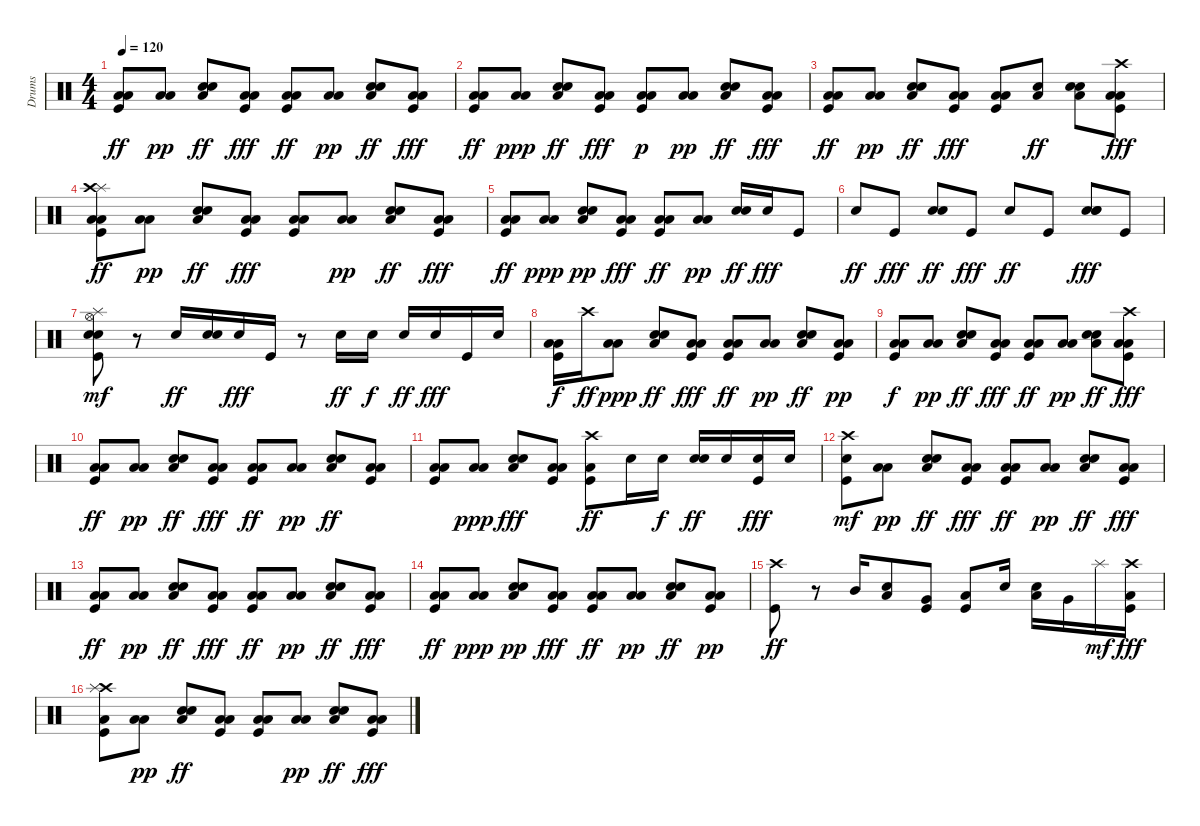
\track ("Drums" "Drums") {instrument percussion}
\staff {score}
\articulation defaults
\ts (4 4)
\tempo 120
\clef neutral
\ks c
("Low Tom (hit)" "Low Floor Tom (hit)" "Kick (hit)").8{dy ff} ("Low Tom (hit)" "Low Floor Tom (hit)").8{dy pp} ("Low Floor Tom (hit)" "Hand Clap (hit)" "Snare (hit) 2").8{dy ff} ("Low Tom (hit)" "Low Floor Tom (hit)" "Kick (hit)").8{dy fff} ("Low Tom (hit)" "Low Floor Tom (hit)" "Kick (hit)").8{dy ff} ("Low Floor Tom (hit)" "Low Tom (hit)").8{dy pp} ("Low Floor Tom (hit)" "Hand Clap (hit)" "Snare (hit) 2").8{dy ff} ("Low Tom (hit)" "Low Floor Tom (hit)" "Kick (hit)").8{dy fff} |
("Low Tom (hit)" "Low Floor Tom (hit)" "Kick (hit)").8{dy ff} ("Low Floor Tom (hit)" "Low Tom (hit)").8{dy ppp} ("Low Floor Tom (hit)" "Hand Clap (hit)" "Snare (hit) 2").8{dy ff} ("Low Tom (hit)" "Low Floor Tom (hit)" "Kick (hit)").8{dy fff} ("Kick (hit)" "Low Tom (hit)" "Low Floor Tom (hit)").8{dy p} ("Low Tom (hit)" "Low Floor Tom (hit)").8{dy pp} ("Low Floor Tom (hit)" "Hand Clap (hit)" "Snare (hit) 2").8{dy ff} ("Low Tom (hit)" "Low Floor Tom (hit)" "Kick (hit)").8{dy fff} |
("Low Tom (hit)" "Low Floor Tom (hit)" "Kick (hit)").8{dy ff} ("Low Tom (hit)" "Low Floor Tom (hit)").8{dy pp} ("Hand Clap (hit)" "Low Floor Tom (hit)" "Snare (hit) 2").8{dy ff} ("Low Tom (hit)" "Low Floor Tom (hit)" "Kick (hit)").8{dy fff} ("Low Tom (hit)" "Low Floor Tom (hit)" "Kick (hit)").8 ("Low Floor Tom (hit)" "Snare (hit) 2").8{dy ff} ("Low Floor Tom (hit)" "Hand Clap (hit)" "Snare (hit) 2").8 ("Crash high (hit)" "Low Tom (hit)" "Low Floor Tom (hit)" "Kick (hit)").8{dy fff} |
("Splash (hit)" "Crash high (hit)" "Low Tom (hit)" "Low Floor Tom (hit)" "Kick (hit)").8{dy ff} ("Low Tom (hit)" "Low Floor Tom (hit)").8{dy pp} ("Hand Clap (hit)" "Low Floor Tom (hit)" "Snare (hit) 2").8{dy ff} ("Low Tom (hit)" "Low Floor Tom (hit)" "Kick (hit)").8{dy fff} ("Low Tom (hit)" "Low Floor Tom (hit)" "Kick (hit)").8 ("Low Floor Tom (hit)" "Low Tom (hit)").8{dy pp} ("Low Floor Tom (hit)" "Hand Clap (hit)" "Snare (hit) 2").8{dy ff} ("Low Tom (hit)" "Low Floor Tom (hit)" "Kick (hit)").8{dy fff} |
("Low Tom (hit)" "Low Floor Tom (hit)" "Kick (hit)").8{dy ff} ("Low Floor Tom (hit)" "Low Tom (hit)").8{dy ppp} ("Hand Clap (hit)" "Snare (hit) 2" "Low Floor Tom (hit)").8{dy pp} ("Low Tom (hit)" "Low Floor Tom (hit)" "Kick (hit)").8{dy fff} ("Low Tom (hit)" "Low Floor Tom (hit)" "Kick (hit)").8{dy ff} ("Low Tom (hit)" "Low Floor Tom (hit)").8{dy pp} ("Hand Clap (hit)" "Snare (hit) 2").16{dy ff} "Snare (hit) 2".16{dy fff} "Kick (hit)".8 |
"Snare (hit) 2".8{dy ff} "Kick (hit)".8{dy fff} ("Hand Clap (hit)" "Snare (hit) 2").8{dy ff} "Kick (hit)".8{dy fff} "Snare (hit) 2".8{dy ff} "Kick (hit)".8 ("Snare (hit) 2" "Hand Clap (hit)" "Snare (hit) 2").8{dy fff} "Kick (hit)".8 |
("Electric Snare (hit)" "Snare (hit) 2" "Kick (hit)" "Hi-Hat (open)" "Splash (hit)").8{dy mf} r.8 "Snare (hit) 2".16{dy ff} ("Snare (hit) 2" "Hand Clap (hit)").16 "Snare (hit) 2".16{dy fff} "Kick (hit)".16 r.8 "Snare (hit) 2".16{dy ff} "Snare (hit) 2".16{dy f} "Hand Clap (hit)".16{dy ff} "Snare (hit) 2".16{dy fff} "Kick (hit)".16 "Snare (hit) 2".16 |
("Low Tom (hit)" "Low Floor Tom (hit)" "Kick (hit)").16{dy f} "Crash high (hit)".16{dy ff} ("Low Floor Tom (hit)" "Low Tom (hit)").8{dy ppp} ("Snare (hit) 2" "Low Floor Tom (hit)" "Hand Clap (hit)").8{dy ff} ("Low Tom (hit)" "Low Floor Tom (hit)" "Kick (hit)").8{dy fff} ("Low Tom (hit)" "Low Floor Tom (hit)" "Kick (hit)").8{dy ff} ("Low Tom (hit)" "Low Floor Tom (hit)").8{dy pp} ("Low Floor Tom (hit)" "Hand Clap (hit)" "Snare (hit) 2").8{dy ff} ("Kick (hit)" "Low Tom (hit)" "Low Floor Tom (hit)").8{dy pp} |
("Kick (hit)" "Low Tom (hit)" "Low Floor Tom (hit)").8{dy f} ("Low Tom (hit)" "Low Floor Tom (hit)").8{dy pp} ("Snare (hit) 2" "Low Floor Tom (hit)" "Hand Clap (hit)").8{dy ff} ("Low Tom (hit)" "Low Floor Tom (hit)" "Kick (hit)").8{dy fff} ("Low Tom (hit)" "Low Floor Tom (hit)" "Kick (hit)").8{dy ff} ("Low Tom (hit)" "Low Floor Tom (hit)").8{dy pp} ("Low Floor Tom (hit)" "Hand Clap (hit)" "Snare (hit) 2").8{dy ff} ("Low Tom (hit)" "Low Floor Tom (hit)" "Kick (hit)" "Crash high (hit)").8{dy fff} |
("Low Tom (hit)" "Low Floor Tom (hit)" "Kick (hit)").8{dy ff} ("Low Tom (hit)" "Low Floor Tom (hit)").8{dy pp} ("Snare (hit) 2" "Low Floor Tom (hit)" "Hand Clap (hit)").8{dy ff} ("Low Tom (hit)" "Low Floor Tom (hit)" "Kick (hit)").8{dy fff} ("Low Tom (hit)" "Low Floor Tom (hit)" "Kick (hit)").8{dy ff} ("Low Floor Tom (hit)" "Low Tom (hit)").8{dy pp} ("Low Floor Tom (hit)" "Hand Clap (hit)" "Snare (hit) 2").8{dy ff} ("Low Tom (hit)" "Low Floor Tom (hit)" "Kick (hit)").8 |
("Low Tom (hit)" "Low Floor Tom (hit)" "Kick (hit)").8 ("Low Floor Tom (hit)" "Low Tom (hit)").8{dy ppp} ("Snare (hit) 2" "Low Floor Tom (hit)" "Hand Clap (hit)").8{dy fff} ("Low Tom (hit)" "Low Floor Tom (hit)" "Kick (hit)").8 ("Low Tom (hit)" "Crash high (hit)" "Kick (hit)").8{dy ff} "Snare (hit) 2".16 "Snare (hit) 2".16{dy f} ("Hand Clap (hit)" "Snare (hit) 2").16{dy ff} "Snare (hit) 2".16 ("Kick (hit)" "Snare (hit) 2").16{dy fff} "Snare (hit) 2".16 |
("Snare (hit) 2" "Kick (hit)" "Crash high (hit)").8{dy mf} ("Low Tom (hit)" "Low Floor Tom (hit)").8{dy pp} ("Snare (hit) 2" "Low Floor Tom (hit)" "Hand Clap (hit)").8{dy ff} ("Low Tom (hit)" "Low Floor Tom (hit)" "Kick (hit)").8{dy fff} ("Low Tom (hit)" "Low Floor Tom (hit)" "Kick (hit)").8{dy ff} ("Low Tom (hit)" "Low Floor Tom (hit)").8{dy pp} ("Low Floor Tom (hit)" "Hand Clap (hit)" "Snare (hit) 2").8{dy ff} ("Low Tom (hit)" "Low Floor Tom (hit)" "Kick (hit)").8{dy fff} |
("Low Tom (hit)" "Low Floor Tom (hit)" "Kick (hit)").8{dy ff} ("Low Tom (hit)" "Low Floor Tom (hit)").8{dy pp} ("Snare (hit) 2" "Low Floor Tom (hit)" "Hand Clap (hit)").8{dy ff} ("Low Tom (hit)" "Low Floor Tom (hit)" "Kick (hit)").8{dy fff} ("Low Tom (hit)" "Low Floor Tom (hit)" "Kick (hit)").8{dy ff} ("Low Floor Tom (hit)" "Low Tom (hit)").8{dy pp} ("Snare (hit) 2" "Low Floor Tom (hit)" "Hand Clap (hit)").8{dy ff} ("Low Tom (hit)" "Low Floor Tom (hit)" "Kick (hit)").8{dy fff} |
("Low Tom (hit)" "Low Floor Tom (hit)" "Kick (hit)").8{dy ff} ("Low Floor Tom (hit)" "Low Tom (hit)").8{dy ppp} ("Hand Clap (hit)" "Snare (hit) 2" "Low Floor Tom (hit)").8{dy pp} ("Low Tom (hit)" "Low Floor Tom (hit)" "Kick (hit)").8{dy fff} ("Low Tom (hit)" "Low Floor Tom (hit)" "Kick (hit)").8{dy ff} ("Low Tom (hit)" "Low Floor Tom (hit)").8{dy pp} ("Low Floor Tom (hit)" "Hand Clap (hit)" "Snare (hit) 2").8{dy ff} ("Kick (hit)" "Low Tom (hit)" "Low Floor Tom (hit)").8{dy pp} |
("Crash high (hit)" "Kick (hit)").8{dy ff} r.8 "Mid Tom (hit)".16 ("Hand Clap (hit)" "Low Tom (hit)").8 ("Kick (hit)" "Very Low Tom (hit)").8 ("Kick (hit)" "Low Floor Tom (hit)").8 "Snare (hit) 2".16 ("Hand Clap (hit)" "Low Tom (hit)").16 "Very Low Tom (hit)".16 "Splash (hit)".16{dy mf} ("Crash high (hit)" "Kick (hit)" "Low Floor Tom (hit)").16{dy fff} |
("Crash high (hit)" "Splash (hit)" "Low Tom (hit)" "Kick (hit)").8 ("Low Tom (hit)" "Low Floor Tom (hit)").8{dy pp} ("Snare (hit) 2" "Low Floor Tom (hit)" "Hand Clap (hit)").8{dy ff} ("Low Tom (hit)" "Low Floor Tom (hit)" "Kick (hit)").8 ("Low Tom (hit)" "Low Floor Tom (hit)" "Kick (hit)").8 ("Low Floor Tom (hit)" "Low Tom (hit)").8{dy pp} ("Snare (hit) 2" "Low Floor Tom (hit)" "Hand Clap (hit)").8{dy ff} ("Low Tom (hit)" "Low Floor Tom (hit)" "Kick (hit)").8{dy fff}
